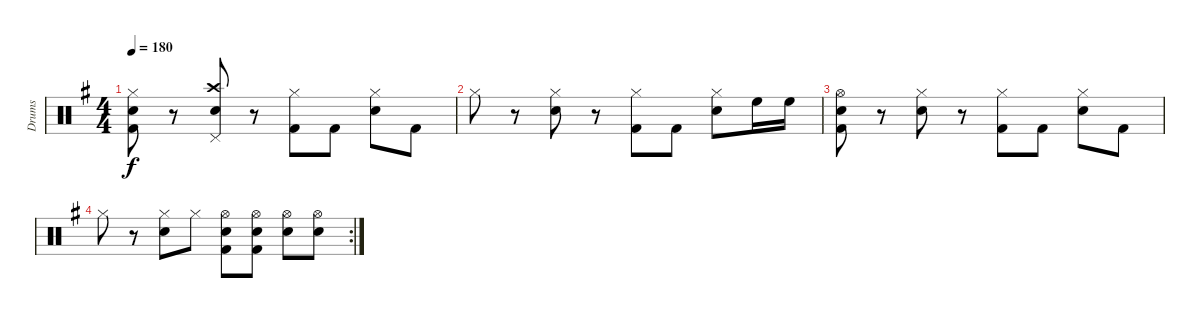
\track ("Drums" "Drums") {instrument percussion bank 255}
\staff {score}
\articulation defaults
\ts (4 4)
\tempo 180
\clef neutral
\ks g
("Hi-Hat (closed)" "Snare (hit) 2" "Kick (hit) 2").8{dy f} r.8 ("Crash high (hit)" "Pedal Hi-Hat (hit)" "Snare (hit) 2").8 r.8 ("Hi-Hat (closed)" "Kick (hit) 2").8 "Kick (hit) 2".8 ("Hi-Hat (closed)" "Snare (hit) 2").8 "Kick (hit) 2".8 |
"Hi-Hat (closed)".8 r.8 ("Hi-Hat (closed)" "Snare (hit) 2").8 r.8 ("Hi-Hat (closed)" "Kick (hit) 2").8 "Kick (hit) 2".8 ("Hi-Hat (closed)" "Snare (hit) 2").8 "High Floor Tom (hit)".16 "High Floor Tom (hit)".16 |
("Hi-Hat (open)" "Snare (hit) 2" "Kick (hit) 2").8 r.8 ("Hi-Hat (closed)" "Snare (hit) 2").8 r.8 ("Hi-Hat (closed)" "Kick (hit) 2").8 "Kick (hit) 2".8 ("Hi-Hat (closed)" "Snare (hit) 2").8 "Kick (hit) 2".8 |
\rc 2 "Hi-Hat (closed)".8
r.8 ("Hi-Hat (closed)" "Snare (hit) 2").8 "Hi-Hat (closed)".8 ("Hi-Hat (open)" "Snare (hit) 2" "Kick (hit) 2").8 ("Hi-Hat (open)" "Snare (hit) 2" "Kick (hit) 2").8 ("Hi-Hat (open)" "Snare (hit) 2").8 ("Hi-Hat (open)" "Snare (hit) 2").8
